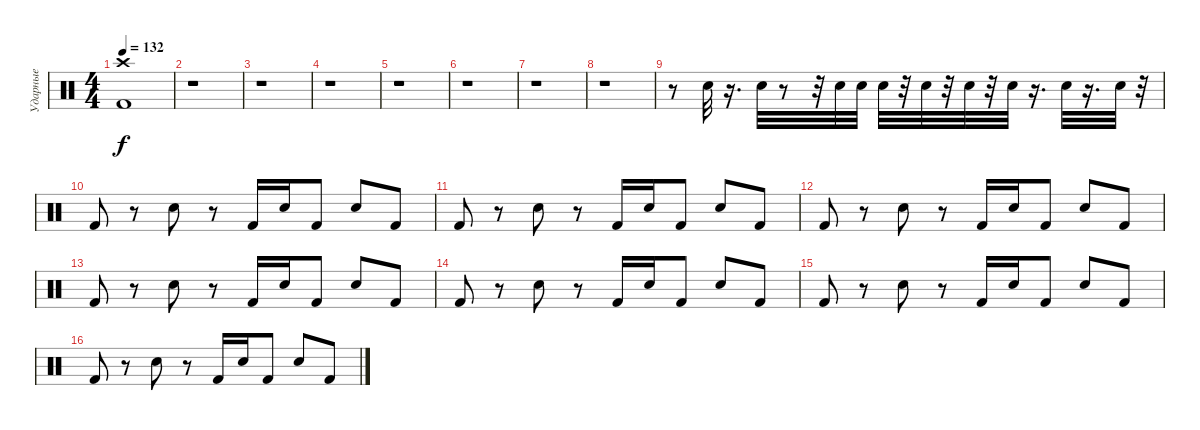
\track ("Ударные" "Ударные") {instrument percussion}
\staff {score}
\articulation defaults
\ts (4 4)
\tempo 132
\clef neutral
\ks c
("Crash high (hit)" "Kick (hit) 2").1{dy f} |
r.1 |
r.1 |
r.1 |
r.1 |
r.1 |
r.1 |
r.1 |
r.8 "Electric Snare (hit)".32 r.16{d} "Electric Snare (hit)".32 r.8 r.32 "Electric Snare (hit)".32 "Electric Snare (hit)".32 "Electric Snare (hit)".32 r.32 "Electric Snare (hit)".32 r.32 "Electric Snare (hit)".32 r.32 "Electric Snare (hit)".32 r.16{d} "Electric Snare (hit)".32 r.16{d} "Electric Snare (hit)".32 r.32 |
"Kick (hit) 2".8 r.8 "Electric Snare (hit)".8 r.8 "Kick (hit) 2".16 "Electric Snare (hit)".16 "Kick (hit) 2".8 "Electric Snare (hit)".8 "Kick (hit) 2".8 |
"Kick (hit) 2".8 r.8 "Electric Snare (hit)".8 r.8 "Kick (hit) 2".16 "Electric Snare (hit)".16 "Kick (hit) 2".8 "Electric Snare (hit)".8 "Kick (hit) 2".8 |
"Kick (hit) 2".8 r.8 "Electric Snare (hit)".8 r.8 "Kick (hit) 2".16 "Electric Snare (hit)".16 "Kick (hit) 2".8 "Electric Snare (hit)".8 "Kick (hit) 2".8 |
"Kick (hit) 2".8 r.8 "Electric Snare (hit)".8 r.8 "Kick (hit) 2".16 "Electric Snare (hit)".16 "Kick (hit) 2".8 "Electric Snare (hit)".8 "Kick (hit) 2".8 |
"Kick (hit) 2".8 r.8 "Electric Snare (hit)".8 r.8 "Kick (hit) 2".16 "Electric Snare (hit)".16 "Kick (hit) 2".8 "Electric Snare (hit)".8 "Kick (hit) 2".8 |
"Kick (hit) 2".8 r.8 "Electric Snare (hit)".8 r.8 "Kick (hit) 2".16 "Electric Snare (hit)".16 "Kick (hit) 2".8 "Electric Snare (hit)".8 "Kick (hit) 2".8 |
"Kick (hit) 2".8 r.8 "Electric Snare (hit)".8 r.8 "Kick (hit) 2".16 "Electric Snare (hit)".16 "Kick (hit) 2".8 "Electric Snare (hit)".8 "Kick (hit) 2".8
